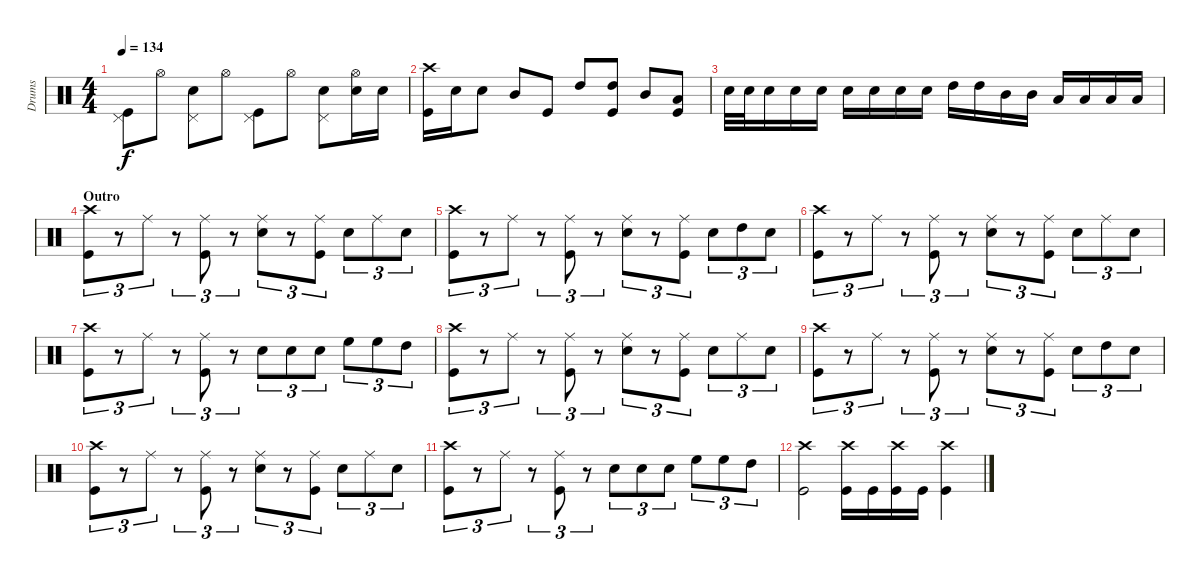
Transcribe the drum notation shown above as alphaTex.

\track ("Drums" "Drums") {instrument percussion}
\staff {score}
\articulation defaults
\ts (4 4)
\tempo 134
\clef neutral
\ks c
("Pedal Hi-Hat (hit)" "Kick (hit)").8{dy f} "Hi-Hat (open)".8 ("Pedal Hi-Hat (hit)" "Electric Snare (hit)").8 "Hi-Hat (open)".8 ("Pedal Hi-Hat (hit)" "Kick (hit)").8 "Hi-Hat (open)".8 ("Pedal Hi-Hat (hit)" "Electric Snare (hit)").8 ("Hi-Hat (open)" "Electric Snare (hit)").16 "Electric Snare (hit)".16 |
("Crash high (hit)" "Kick (hit)").16 "Electric Snare (hit)".16 "Electric Snare (hit)".8 "Mid Tom (hit)".8 "Kick (hit)".8 "High Tom (hit)".8 ("High Tom (hit)" "Kick (hit)").8 "Mid Tom (hit)".8 ("Low Tom (hit)" "Kick (hit)").8 |
"Electric Snare (hit)".32 "Electric Snare (hit)".32 "Electric Snare (hit)".16 "Electric Snare (hit)".16 "Electric Snare (hit)".16 "Electric Snare (hit)".16 "Electric Snare (hit)".16 "Electric Snare (hit)".16 "Electric Snare (hit)".16 "High Tom (hit)".16 "High Tom (hit)".16 "Mid Tom (hit)".16 "Mid Tom (hit)".16 "Low Tom (hit)".16 "Low Tom (hit)".16 "Low Tom (hit)".16 "Low Tom (hit)".16 |
\section ("" "Outro")
("Crash high (hit)" "Kick (hit)").8{tu (3 2)} r.8{tu (3 2)} "Ride (middle)".8{tu (3 2)} r.8{tu (3 2)} ("Ride (middle)" "Kick (hit)").8{tu (3 2)} r.8{tu (3 2)} ("Ride (middle)" "Electric Snare (hit)").8{tu (3 2)} r.8{tu (3 2)} ("Ride (middle)" "Kick (hit)").8{tu (3 2)} "Electric Snare (hit)".8{tu (3 2)} "Ride (middle)".8{tu (3 2)} "Electric Snare (hit)".8{tu (3 2)} |
("Crash high (hit)" "Kick (hit)").8{tu (3 2)} r.8{tu (3 2)} "Ride (middle)".8{tu (3 2)} r.8{tu (3 2)} ("Ride (middle)" "Kick (hit)").8{tu (3 2)} r.8{tu (3 2)} ("Ride (middle)" "Electric Snare (hit)").8{tu (3 2)} r.8{tu (3 2)} ("Ride (middle)" "Kick (hit)").8{tu (3 2)} "Electric Snare (hit)".8{tu (3 2)} "High Tom (hit)".8{tu (3 2)} "Electric Snare (hit)".8{tu (3 2)} |
("Crash high (hit)" "Kick (hit)").8{tu (3 2)} r.8{tu (3 2)} "Ride (middle)".8{tu (3 2)} r.8{tu (3 2)} ("Ride (middle)" "Kick (hit)").8{tu (3 2)} r.8{tu (3 2)} ("Ride (middle)" "Electric Snare (hit)").8{tu (3 2)} r.8{tu (3 2)} ("Ride (middle)" "Kick (hit)").8{tu (3 2)} "Electric Snare (hit)".8{tu (3 2)} "Ride (middle)".8{tu (3 2)} "Electric Snare (hit)".8{tu (3 2)} |
("Crash high (hit)" "Kick (hit)").8{tu (3 2)} r.8{tu (3 2)} "Ride (middle)".8{tu (3 2)} r.8{tu (3 2)} ("Ride (middle)" "Kick (hit)").8{tu (3 2)} r.8{tu (3 2)} "Electric Snare (hit)".8{tu (3 2)} "Electric Snare (hit)".8{tu (3 2)} "Electric Snare (hit)".8{tu (3 2)} "High Floor Tom (hit)".8{tu (3 2)} "High Floor Tom (hit)".8{tu (3 2)} "High Tom (hit)".8{tu (3 2)} |
("Crash high (hit)" "Kick (hit)").8{tu (3 2)} r.8{tu (3 2)} "Ride (middle)".8{tu (3 2)} r.8{tu (3 2)} ("Ride (middle)" "Kick (hit)").8{tu (3 2)} r.8{tu (3 2)} ("Ride (middle)" "Electric Snare (hit)").8{tu (3 2)} r.8{tu (3 2)} ("Ride (middle)" "Kick (hit)").8{tu (3 2)} "Electric Snare (hit)".8{tu (3 2)} "Ride (middle)".8{tu (3 2)} "Electric Snare (hit)".8{tu (3 2)} |
("Crash high (hit)" "Kick (hit)").8{tu (3 2)} r.8{tu (3 2)} "Ride (middle)".8{tu (3 2)} r.8{tu (3 2)} ("Ride (middle)" "Kick (hit)").8{tu (3 2)} r.8{tu (3 2)} ("Ride (middle)" "Electric Snare (hit)").8{tu (3 2)} r.8{tu (3 2)} ("Ride (middle)" "Kick (hit)").8{tu (3 2)} "Electric Snare (hit)".8{tu (3 2)} "High Tom (hit)".8{tu (3 2)} "Electric Snare (hit)".8{tu (3 2)} |
("Crash high (hit)" "Kick (hit)").8{tu (3 2)} r.8{tu (3 2)} "Ride (middle)".8{tu (3 2)} r.8{tu (3 2)} ("Ride (middle)" "Kick (hit)").8{tu (3 2)} r.8{tu (3 2)} ("Ride (middle)" "Electric Snare (hit)").8{tu (3 2)} r.8{tu (3 2)} ("Ride (middle)" "Kick (hit)").8{tu (3 2)} "Electric Snare (hit)".8{tu (3 2)} "Ride (middle)".8{tu (3 2)} "Electric Snare (hit)".8{tu (3 2)} |
("Crash high (hit)" "Kick (hit)").8{tu (3 2)} r.8{tu (3 2)} "Ride (middle)".8{tu (3 2)} r.8{tu (3 2)} ("Ride (middle)" "Kick (hit)").8{tu (3 2)} r.8{tu (3 2)} "Electric Snare (hit)".8{tu (3 2)} "Electric Snare (hit)".8{tu (3 2)} "Electric Snare (hit)".8{tu (3 2)} "High Floor Tom (hit)".8{tu (3 2)} "High Floor Tom (hit)".8{tu (3 2)} "High Tom (hit)".8{tu (3 2)} |
("Crash high (hit)" "Kick (hit)").2 ("Crash high (hit)" "Kick (hit)").16 "Kick (hit)".16 ("Crash high (hit)" "Kick (hit)").16 "Kick (hit)".16 ("Crash high (hit)" "Kick (hit)").4
